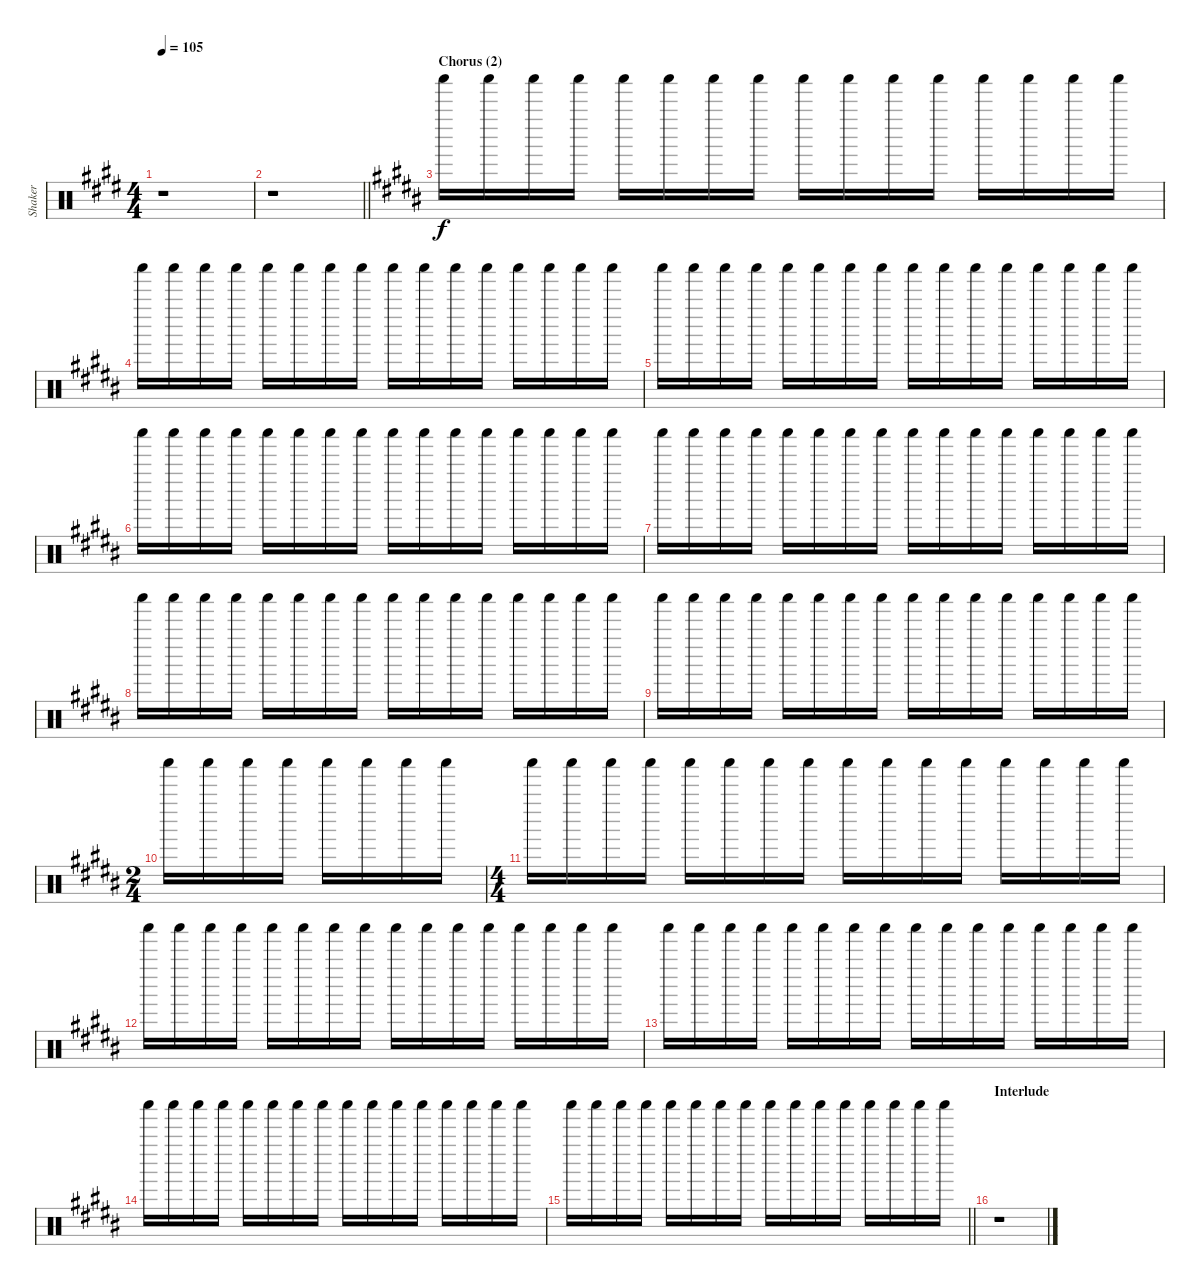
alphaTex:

\track ("Shaker" "Shaker") {instrument percussion}
\staff {score}
\articulation defaults
\ts (4 4)
\tempo 105
\clef neutral
\ks e
r.1{dy f} |
\barLineRight lightlight
r.1 |
\section ("" "Chorus (2)")
\ks g#minor "Shaker (hit)".16 "Shaker (hit)".16 "Shaker (hit)".16 "Shaker (hit)".16 "Shaker (hit)".16 "Shaker (hit)".16 "Shaker (hit)".16 "Shaker (hit)".16 "Shaker (hit)".16 "Shaker (hit)".16 "Shaker (hit)".16 "Shaker (hit)".16 "Shaker (hit)".16 "Shaker (hit)".16 "Shaker (hit)".16 "Shaker (hit)".16
|
"Shaker (hit)".16 "Shaker (hit)".16 "Shaker (hit)".16 "Shaker (hit)".16 "Shaker (hit)".16 "Shaker (hit)".16 "Shaker (hit)".16 "Shaker (hit)".16 "Shaker (hit)".16 "Shaker (hit)".16 "Shaker (hit)".16 "Shaker (hit)".16 "Shaker (hit)".16 "Shaker (hit)".16 "Shaker (hit)".16 "Shaker (hit)".16 |
"Shaker (hit)".16 "Shaker (hit)".16 "Shaker (hit)".16 "Shaker (hit)".16 "Shaker (hit)".16 "Shaker (hit)".16 "Shaker (hit)".16 "Shaker (hit)".16 "Shaker (hit)".16 "Shaker (hit)".16 "Shaker (hit)".16 "Shaker (hit)".16 "Shaker (hit)".16 "Shaker (hit)".16 "Shaker (hit)".16 "Shaker (hit)".16 |
"Shaker (hit)".16 "Shaker (hit)".16 "Shaker (hit)".16 "Shaker (hit)".16 "Shaker (hit)".16 "Shaker (hit)".16 "Shaker (hit)".16 "Shaker (hit)".16 "Shaker (hit)".16 "Shaker (hit)".16 "Shaker (hit)".16 "Shaker (hit)".16 "Shaker (hit)".16 "Shaker (hit)".16 "Shaker (hit)".16 "Shaker (hit)".16 |
"Shaker (hit)".16 "Shaker (hit)".16 "Shaker (hit)".16 "Shaker (hit)".16 "Shaker (hit)".16 "Shaker (hit)".16 "Shaker (hit)".16 "Shaker (hit)".16 "Shaker (hit)".16 "Shaker (hit)".16 "Shaker (hit)".16 "Shaker (hit)".16 "Shaker (hit)".16 "Shaker (hit)".16 "Shaker (hit)".16 "Shaker (hit)".16 |
"Shaker (hit)".16 "Shaker (hit)".16 "Shaker (hit)".16 "Shaker (hit)".16 "Shaker (hit)".16 "Shaker (hit)".16 "Shaker (hit)".16 "Shaker (hit)".16 "Shaker (hit)".16 "Shaker (hit)".16 "Shaker (hit)".16 "Shaker (hit)".16 "Shaker (hit)".16 "Shaker (hit)".16 "Shaker (hit)".16 "Shaker (hit)".16 |
"Shaker (hit)".16 "Shaker (hit)".16 "Shaker (hit)".16 "Shaker (hit)".16 "Shaker (hit)".16 "Shaker (hit)".16 "Shaker (hit)".16 "Shaker (hit)".16 "Shaker (hit)".16 "Shaker (hit)".16 "Shaker (hit)".16 "Shaker (hit)".16 "Shaker (hit)".16 "Shaker (hit)".16 "Shaker (hit)".16 "Shaker (hit)".16 |
\ts (2 4)
"Shaker (hit)".16 "Shaker (hit)".16 "Shaker (hit)".16 "Shaker (hit)".16 "Shaker (hit)".16 "Shaker (hit)".16 "Shaker (hit)".16 "Shaker (hit)".16 |
\ts (4 4)
"Shaker (hit)".16 "Shaker (hit)".16 "Shaker (hit)".16 "Shaker (hit)".16 "Shaker (hit)".16 "Shaker (hit)".16 "Shaker (hit)".16 "Shaker (hit)".16 "Shaker (hit)".16 "Shaker (hit)".16 "Shaker (hit)".16 "Shaker (hit)".16 "Shaker (hit)".16 "Shaker (hit)".16 "Shaker (hit)".16 "Shaker (hit)".16 |
"Shaker (hit)".16 "Shaker (hit)".16 "Shaker (hit)".16 "Shaker (hit)".16 "Shaker (hit)".16 "Shaker (hit)".16 "Shaker (hit)".16 "Shaker (hit)".16 "Shaker (hit)".16 "Shaker (hit)".16 "Shaker (hit)".16 "Shaker (hit)".16 "Shaker (hit)".16 "Shaker (hit)".16 "Shaker (hit)".16 "Shaker (hit)".16 |
"Shaker (hit)".16 "Shaker (hit)".16 "Shaker (hit)".16 "Shaker (hit)".16 "Shaker (hit)".16 "Shaker (hit)".16 "Shaker (hit)".16 "Shaker (hit)".16 "Shaker (hit)".16 "Shaker (hit)".16 "Shaker (hit)".16 "Shaker (hit)".16 "Shaker (hit)".16 "Shaker (hit)".16 "Shaker (hit)".16 "Shaker (hit)".16 |
"Shaker (hit)".16 "Shaker (hit)".16 "Shaker (hit)".16 "Shaker (hit)".16 "Shaker (hit)".16 "Shaker (hit)".16 "Shaker (hit)".16 "Shaker (hit)".16 "Shaker (hit)".16 "Shaker (hit)".16 "Shaker (hit)".16 "Shaker (hit)".16 "Shaker (hit)".16 "Shaker (hit)".16 "Shaker (hit)".16 "Shaker (hit)".16 |
\barLineRight lightlight "Shaker (hit)".16 "Shaker (hit)".16 "Shaker (hit)".16 "Shaker (hit)".16 "Shaker (hit)".16 "Shaker (hit)".16 "Shaker (hit)".16 "Shaker (hit)".16 "Shaker (hit)".16 "Shaker (hit)".16 "Shaker (hit)".16 "Shaker (hit)".16 "Shaker (hit)".16 "Shaker (hit)".16 "Shaker (hit)".16 "Shaker (hit)".16
|
\section ("" "Interlude")
r.1
